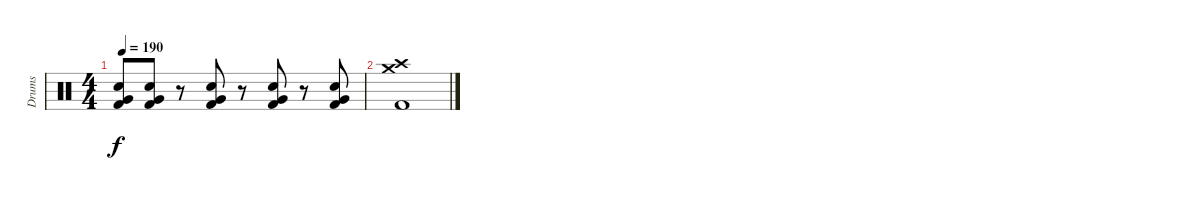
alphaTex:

\track ("Drums" "Drums") {instrument percussion}
\staff {score}
\articulation defaults
\ts (4 4)
\tempo 190
\clef neutral
\ks c
("Snare (hit) 2" "Very Low Tom (hit)" "Kick (hit) 2").8{dy f} ("Snare (hit) 2" "Very Low Tom (hit)" "Kick (hit) 2").8 r.8 ("Snare (hit) 2" "Very Low Tom (hit)" "Kick (hit) 2").8 r.8 ("Snare (hit) 2" "Very Low Tom (hit)" "Kick (hit) 2").8 r.8 ("Snare (hit) 2" "Very Low Tom (hit)" "Kick (hit) 2").8 |
("Kick (hit) 2" "Crash high (hit)" "Crash medium (hit)").1
